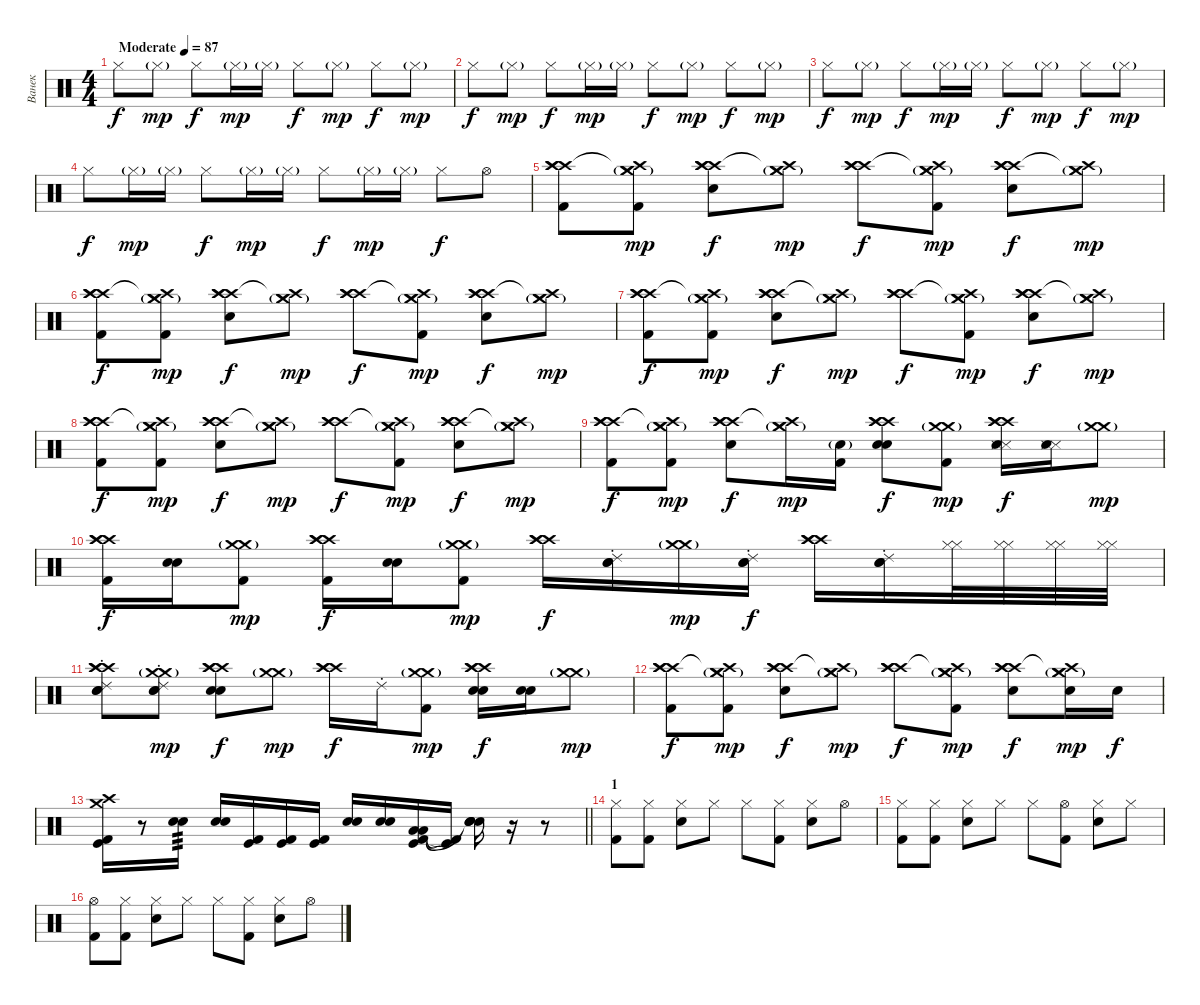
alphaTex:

\track ("Ванек" "Ванек") {instrument percussion}
\staff {score}
\articulation defaults
\ts (4 4)
\tempo (87 "Moderate")
\clef neutral
\ks c "Hi-Hat (closed)".8{dy f} "Hi-Hat (closed)"{g}.8{dy mp} "Hi-Hat (closed)".8{dy f} "Hi-Hat (closed)"{g}.16{dy mp} "Hi-Hat (closed)"{g}.16 "Hi-Hat (closed)".8{dy f} "Hi-Hat (closed)"{g}.8{dy mp} "Hi-Hat (closed)".8{dy f} "Hi-Hat (closed)"{g}.8{dy mp}
|
"Hi-Hat (closed)".8{dy f} "Hi-Hat (closed)"{g}.8{dy mp} "Hi-Hat (closed)".8{dy f} "Hi-Hat (closed)"{g}.16{dy mp} "Hi-Hat (closed)"{g}.16 "Hi-Hat (closed)".8{dy f} "Hi-Hat (closed)"{g}.8{dy mp} "Hi-Hat (closed)".8{dy f} "Hi-Hat (closed)"{g}.8{dy mp} |
"Hi-Hat (closed)".8{dy f} "Hi-Hat (closed)"{g}.8{dy mp} "Hi-Hat (closed)".8{dy f} "Hi-Hat (closed)"{g}.16{dy mp} "Hi-Hat (closed)"{g}.16 "Hi-Hat (closed)".8{dy f} "Hi-Hat (closed)"{g}.8{dy mp} "Hi-Hat (closed)".8{dy f} "Hi-Hat (closed)"{g}.8{dy mp} |
"Hi-Hat (closed)".8{dy f} "Hi-Hat (closed)"{g}.16{dy mp} "Hi-Hat (closed)"{g}.16 "Hi-Hat (closed)".8{dy f} "Hi-Hat (closed)"{g}.16{dy mp} "Hi-Hat (closed)"{g}.16 "Hi-Hat (closed)".8{dy f} "Hi-Hat (closed)"{g}.16{dy mp} "Hi-Hat (closed)"{g}.16 "Hi-Hat (closed)".8{dy f} "Hi-Hat (open)".8 |
("Crash high (hit)" "Crash high (hit)" "Crash high (hit)" "Kick (hit) 2").8 ("Crash medium (hit)"{g} "Crash medium (hit)"{g} "Crash high (hit)"{t} "Kick (hit) 2").8{dy mp} ("Crash high (hit)" "Crash high (hit)" "Crash high (hit)" "Snare (hit) 2").8{dy f} ("Crash medium (hit)"{g} "Crash medium (hit)"{g} "Crash high (hit)"{t}).8{dy mp} ("Crash high (hit)" "Crash high (hit)" "Crash high (hit)").8{dy f} ("Crash medium (hit)"{g} "Crash medium (hit)"{g} "Crash high (hit)"{t} "Kick (hit) 2").8{dy mp} ("Crash high (hit)" "Crash high (hit)" "Crash high (hit)" "Snare (hit) 2").8{dy f} ("Crash medium (hit)"{g} "Crash medium (hit)"{g} "Crash high (hit)"{t}).8{dy mp} |
("Crash high (hit)" "Crash high (hit)" "Crash high (hit)" "Kick (hit) 2").8{dy f} ("Crash medium (hit)"{g} "Crash medium (hit)"{g} "Crash high (hit)"{t} "Kick (hit) 2").8{dy mp} ("Crash high (hit)" "Crash high (hit)" "Crash high (hit)" "Snare (hit) 2").8{dy f} ("Crash medium (hit)"{g} "Crash medium (hit)"{g} "Crash high (hit)"{t}).8{dy mp} ("Crash high (hit)" "Crash high (hit)" "Crash high (hit)").8{dy f} ("Crash medium (hit)"{g} "Crash medium (hit)"{g} "Crash high (hit)"{t} "Kick (hit) 2").8{dy mp} ("Crash high (hit)" "Crash high (hit)" "Crash high (hit)" "Snare (hit) 2").8{dy f} ("Crash medium (hit)"{g} "Crash medium (hit)"{g} "Crash high (hit)"{t}).8{dy mp} |
("Crash high (hit)" "Crash high (hit)" "Crash high (hit)" "Kick (hit) 2").8{dy f} ("Crash medium (hit)"{g} "Crash medium (hit)"{g} "Crash high (hit)"{t} "Kick (hit) 2").8{dy mp} ("Crash high (hit)" "Crash high (hit)" "Crash high (hit)" "Snare (hit) 2").8{dy f} ("Crash medium (hit)"{g} "Crash medium (hit)"{g} "Crash high (hit)"{t}).8{dy mp} ("Crash high (hit)" "Crash high (hit)" "Crash high (hit)").8{dy f} ("Crash medium (hit)"{g} "Crash medium (hit)"{g} "Crash high (hit)"{t} "Kick (hit) 2").8{dy mp} ("Crash high (hit)" "Crash high (hit)" "Crash high (hit)" "Snare (hit) 2").8{dy f} ("Crash medium (hit)"{g} "Crash medium (hit)"{g} "Crash high (hit)"{t}).8{dy mp} |
("Crash high (hit)" "Crash high (hit)" "Crash high (hit)" "Kick (hit) 2").8{dy f} ("Crash medium (hit)"{g} "Crash medium (hit)"{g} "Crash high (hit)"{t} "Kick (hit) 2").8{dy mp} ("Crash high (hit)" "Crash high (hit)" "Crash high (hit)" "Snare (hit) 2").8{dy f} ("Crash medium (hit)"{g} "Crash medium (hit)"{g} "Crash high (hit)"{t}).8{dy mp} ("Crash high (hit)" "Crash high (hit)" "Crash high (hit)").8{dy f} ("Crash medium (hit)"{g} "Crash medium (hit)"{g} "Crash high (hit)"{t} "Kick (hit) 2").8{dy mp} ("Crash high (hit)" "Crash high (hit)" "Crash high (hit)" "Snare (hit) 2").8{dy f} ("Crash medium (hit)"{g} "Crash medium (hit)"{g} "Crash high (hit)"{t}).8{dy mp} |
("Crash high (hit)" "Crash high (hit)" "Crash high (hit)" "Kick (hit) 2").8{dy f} ("Crash medium (hit)"{g} "Crash medium (hit)"{g} "Crash high (hit)"{t} "Kick (hit) 2").8{dy mp} ("Crash high (hit)" "Crash high (hit)" "Crash high (hit)" "Snare (hit) 2").8{dy f} ("Crash medium (hit)"{g} "Crash medium (hit)"{g} "Crash high (hit)"{t}).16{dy mp} ("Electric Snare (hit)"{g} "Kick (hit) 2").16 ("Crash high (hit)" "Crash high (hit)" "Crash high (hit)" "Electric Snare (hit)" "Snare (hit) 2").8{dy f} ("Crash medium (hit)"{g} "Crash medium (hit)"{g} "Kick (hit) 2").8{dy mp} ("Crash high (hit)" "Crash high (hit)" "Crash high (hit)" "Snare (side stick) 3" "Snare (hit) 2" "Snare (side stick) 3").16{dy f} ("Snare (side stick) 3" "Snare (hit) 2" "Snare (side stick) 3").16 ("Crash medium (hit)"{g} "Crash medium (hit)"{g}).8{dy mp} |
("Crash high (hit)" "Crash high (hit)" "Crash high (hit)" "Kick (hit) 2").16{dy f} ("Snare (hit) 2" "Electric Snare (hit)").16 ("Crash medium (hit)"{g} "Crash medium (hit)"{g} "Kick (hit) 2").8{dy mp} ("Crash high (hit)" "Crash high (hit)" "Crash high (hit)" "Kick (hit) 2").16{dy f} ("Snare (hit) 2" "Electric Snare (hit)").16 ("Crash medium (hit)"{g} "Crash medium (hit)"{g} "Kick (hit) 2").8{dy mp} ("Crash high (hit)" "Crash high (hit)" "Crash high (hit)").16{dy f} ("Snare (hit) 2" "Electric Snare (hit)" "Ride (choke) 2").16 ("Crash medium (hit)"{g} "Crash medium (hit)"{g}).16{dy mp} ("Snare (hit) 2" "Electric Snare (hit)" "Ride (choke) 2").16{dy f} ("Crash high (hit)" "Crash high (hit)" "Crash high (hit)").16 ("Snare (hit) 2" "Electric Snare (hit)" "Ride (choke) 2").16 ("Hi-Hat (closed)" "Hi-Hat (closed)").32 ("Hi-Hat (closed)" "Hi-Hat (closed)").32 ("Hi-Hat (closed)" "Hi-Hat (closed)").32 ("Hi-Hat (closed)" "Hi-Hat (closed)").32 |
("Crash high (hit)" "Crash high (hit)" "Crash high (hit)" "Snare (hit) 2" "Electric Snare (hit)" "Ride (choke) 2").8 ("Crash medium (hit)"{g} "Crash medium (hit)"{g} "Snare (hit) 2" "Electric Snare (hit)" "Ride (choke) 2").8{dy mp} ("Crash high (hit)" "Crash high (hit)" "Crash high (hit)" "Snare (hit) 2" "Snare (hit) 2").8{dy f} ("Crash medium (hit)"{g} "Crash medium (hit)"{g}).8{dy mp} ("Crash high (hit)" "Crash high (hit)" "Crash high (hit)").16{dy f} "Ride (choke) 2".16 ("Crash medium (hit)"{g} "Crash medium (hit)"{g} "Kick (hit) 2").8{dy mp} ("Crash high (hit)" "Crash high (hit)" "Crash high (hit)" "Snare (hit) 2" "Electric Snare (hit)").16{dy f} ("Snare (hit) 2" "Electric Snare (hit)").16 ("Crash medium (hit)"{g} "Crash medium (hit)"{g}).8{dy mp} |
("Crash high (hit)" "Crash high (hit)" "Crash high (hit)" "Kick (hit) 2").8{dy f} ("Crash medium (hit)"{g} "Crash medium (hit)"{g} "Crash high (hit)"{t} "Kick (hit) 2").8{dy mp} ("Crash high (hit)" "Crash high (hit)" "Crash high (hit)" "Snare (hit) 2").8{dy f} ("Crash medium (hit)"{g} "Crash medium (hit)"{g} "Crash high (hit)"{t}).8{dy mp} ("Crash high (hit)" "Crash high (hit)" "Crash high (hit)").8{dy f} ("Crash medium (hit)"{g} "Crash medium (hit)"{g} "Crash high (hit)"{t} "Kick (hit) 2").8{dy mp} ("Crash high (hit)" "Crash high (hit)" "Crash high (hit)" "Snare (hit) 2").8{dy f} ("Crash medium (hit)"{g} "Crash medium (hit)"{g} "Crash high (hit)"{t} "Snare (hit) 2").16{dy mp} "Snare (hit) 2".16{dy f} |
\barLineRight lightlight
("Crash medium (hit)" "Crash high (hit)" "Kick (hit) 2" "Kick (hit)").16 r.8 ("Snare (hit) 2" "Electric Snare (hit)").16{tp 3} ("Snare (hit) 2" "Electric Snare (hit)").16 ("Kick (hit) 2" "Kick (hit)").16 ("Kick (hit) 2" "Kick (hit)").16 ("Kick (hit) 2" "Kick (hit)").16 ("Snare (hit) 2" "Electric Snare (hit)").16 ("Snare (hit) 2" "Electric Snare (hit)").16 ("Low Floor Tom (hit)" "Low Floor Tom (hit)" "Kick (hit) 2" "Kick (hit)").16 ("Kick (hit) 2"{t} "Kick (hit)"{t}).16 ("Snare (hit) 2" "Electric Snare (hit)" "Snare (hit)"{t} "Snare (hit)"{t}).16 r.16 r.8 |
\section ("" "1")
("Hi-Hat (closed)" "Kick (hit) 2").8 ("Hi-Hat (closed)" "Kick (hit) 2").8 ("Hi-Hat (closed)" "Snare (hit) 2").8 "Hi-Hat (closed)".8 "Hi-Hat (closed)".8 ("Hi-Hat (closed)" "Kick (hit) 2").8 ("Hi-Hat (closed)" "Snare (hit) 2").8 "Hi-Hat (open)".8 |
("Hi-Hat (closed)" "Kick (hit) 2").8 ("Hi-Hat (closed)" "Kick (hit) 2").8 ("Hi-Hat (closed)" "Snare (hit) 2").8 "Hi-Hat (closed)".8 "Hi-Hat (closed)".8 ("Hi-Hat (open)" "Kick (hit) 2").8 ("Hi-Hat (closed)" "Snare (hit) 2").8 "Hi-Hat (closed)".8 |
("Hi-Hat (open)" "Kick (hit) 2").8 ("Hi-Hat (closed)" "Kick (hit) 2").8 ("Hi-Hat (closed)" "Snare (hit) 2").8 "Hi-Hat (closed)".8 "Hi-Hat (closed)".8 ("Hi-Hat (closed)" "Kick (hit) 2").8 ("Hi-Hat (closed)" "Snare (hit) 2").8 "Hi-Hat (open)".8
